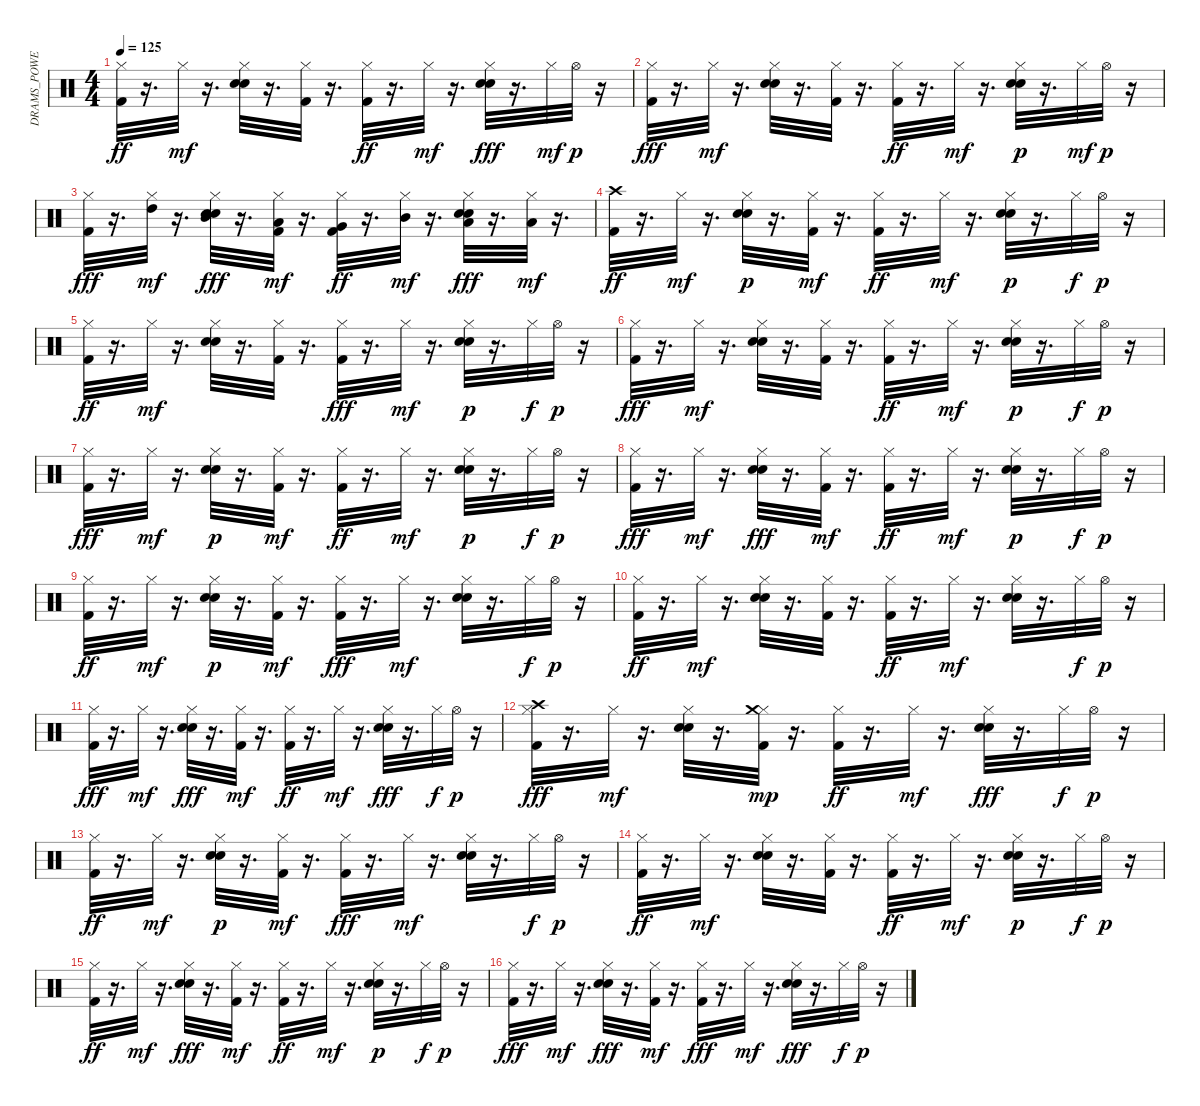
\track ("DRAMS_POWER" "DRAMS_POWE") {instrument percussion}
\staff {score}
\articulation defaults
\ts (4 4)
\tempo 125
\clef neutral
\ks c
("Hi-Hat (closed)" "Kick (hit) 2").32{dy ff} r.16{d} "Hi-Hat (closed)".32{dy mf} r.16{d} ("Snare (hit) 2" "Electric Snare (hit)" "Hi-Hat (closed)").32 r.16{d} ("Hi-Hat (closed)" "Kick (hit) 2").32 r.16{d} ("Hi-Hat (closed)" "Kick (hit) 2").32{dy ff} r.16{d} "Hi-Hat (closed)".32{dy mf} r.16{d} ("Hi-Hat (closed)" "Snare (hit) 2" "Electric Snare (hit)").32{dy fff} r.16{d} "Hi-Hat (closed)".32{dy mf} "Hi-Hat (open)".32{dy p} r.16 |
("Kick (hit) 2" "Hi-Hat (closed)").32{dy fff} r.16{d} "Hi-Hat (closed)".32{dy mf} r.16{d} ("Electric Snare (hit)" "Snare (hit) 2" "Hi-Hat (closed)").32 r.16{d} ("Hi-Hat (closed)" "Kick (hit) 2").32 r.16{d} ("Hi-Hat (closed)" "Kick (hit) 2").32{dy ff} r.16{d} "Hi-Hat (closed)".32{dy mf} r.16{d} ("Hi-Hat (closed)" "Electric Snare (hit)" "Snare (hit) 2").32{dy p} r.16{d} "Hi-Hat (closed)".32{dy mf} "Hi-Hat (open)".32{dy p} r.16 |
("Kick (hit) 2" "Hi-Hat (closed)").32{dy fff} r.16{d} ("Hi-Hat (closed)" "High Tom (hit)").32{dy mf} r.16{d} ("Snare (hit) 2" "Hi-Hat (closed)" "Mid Tom (hit)" "Electric Snare (hit)").32{dy fff} r.16{d} ("Low Tom (hit)" "Kick (hit) 2" "Hi-Hat (closed)").32{dy mf} r.16{d} ("Hi-Hat (closed)" "Very Low Tom (hit)" "Kick (hit) 2").32{dy ff} r.16{d} ("Mid Tom (hit)" "Hi-Hat (closed)").32{dy mf} r.16{d} ("Low Tom (hit)" "Snare (hit) 2" "Hi-Hat (closed)" "Electric Snare (hit)").32{dy fff} r.16{d} ("Hi-Hat (closed)" "Low Floor Tom (hit)").32{dy mf} r.16{d} |
("Kick (hit) 2" "Crash high (hit)").32{dy ff} r.16{d} "Hi-Hat (closed)".32{dy mf} r.16{d} ("Electric Snare (hit)" "Hi-Hat (closed)" "Snare (hit) 2").32{dy p} r.16{d} ("Hi-Hat (closed)" "Kick (hit) 2").32{dy mf} r.16{d} ("Hi-Hat (closed)" "Kick (hit) 2").32{dy ff} r.16{d} "Hi-Hat (closed)".32{dy mf} r.16{d} ("Electric Snare (hit)" "Hi-Hat (closed)" "Snare (hit) 2").32{dy p} r.16{d} "Hi-Hat (closed)".32{dy f} "Hi-Hat (open)".32{dy p} r.16 |
("Hi-Hat (closed)" "Kick (hit) 2").32{dy ff} r.16{d} "Hi-Hat (closed)".32{dy mf} r.16{d} ("Snare (hit) 2" "Electric Snare (hit)" "Hi-Hat (closed)").32 r.16{d} ("Hi-Hat (closed)" "Kick (hit) 2").32 r.16{d} ("Kick (hit) 2" "Hi-Hat (closed)").32{dy fff} r.16{d} "Hi-Hat (closed)".32{dy mf} r.16{d} ("Electric Snare (hit)" "Hi-Hat (closed)" "Snare (hit) 2").32{dy p} r.16{d} "Hi-Hat (closed)".32{dy f} "Hi-Hat (open)".32{dy p} r.16 |
("Kick (hit) 2" "Hi-Hat (closed)").32{dy fff} r.16{d} "Hi-Hat (closed)".32{dy mf} r.16{d} ("Snare (hit) 2" "Electric Snare (hit)" "Hi-Hat (closed)").32 r.16{d} ("Hi-Hat (closed)" "Kick (hit) 2").32 r.16{d} ("Hi-Hat (closed)" "Kick (hit) 2").32{dy ff} r.16{d} "Hi-Hat (closed)".32{dy mf} r.16{d} ("Hi-Hat (closed)" "Electric Snare (hit)" "Snare (hit) 2").32{dy p} r.16{d} "Hi-Hat (closed)".32{dy f} "Hi-Hat (open)".32{dy p} r.16 |
("Kick (hit) 2" "Hi-Hat (closed)").32{dy fff} r.16{d} "Hi-Hat (closed)".32{dy mf} r.16{d} ("Electric Snare (hit)" "Hi-Hat (closed)" "Snare (hit) 2").32{dy p} r.16{d} ("Kick (hit) 2" "Hi-Hat (closed)").32{dy mf} r.16{d} ("Hi-Hat (closed)" "Kick (hit) 2").32{dy ff} r.16{d} "Hi-Hat (closed)".32{dy mf} r.16{d} ("Hi-Hat (closed)" "Electric Snare (hit)" "Snare (hit) 2").32{dy p} r.16{d} "Hi-Hat (closed)".32{dy f} "Hi-Hat (open)".32{dy p} r.16 |
("Kick (hit) 2" "Hi-Hat (closed)").32{dy fff} r.16{d} "Hi-Hat (closed)".32{dy mf} r.16{d} ("Snare (hit) 2" "Hi-Hat (closed)" "Electric Snare (hit)").32{dy fff} r.16{d} ("Kick (hit) 2" "Hi-Hat (closed)").32{dy mf} r.16{d} ("Hi-Hat (closed)" "Kick (hit) 2").32{dy ff} r.16{d} "Hi-Hat (closed)".32{dy mf} r.16{d} ("Hi-Hat (closed)" "Electric Snare (hit)" "Snare (hit) 2").32{dy p} r.16{d} "Hi-Hat (closed)".32{dy f} "Hi-Hat (open)".32{dy p} r.16 |
("Hi-Hat (closed)" "Kick (hit) 2").32{dy ff} r.16{d} "Hi-Hat (closed)".32{dy mf} r.16{d} ("Electric Snare (hit)" "Hi-Hat (closed)" "Snare (hit) 2").32{dy p} r.16{d} ("Kick (hit) 2" "Hi-Hat (closed)").32{dy mf} r.16{d} ("Kick (hit) 2" "Hi-Hat (closed)").32{dy fff} r.16{d} "Hi-Hat (closed)".32{dy mf} r.16{d} ("Snare (hit) 2" "Electric Snare (hit)" "Hi-Hat (closed)").32 r.16{d} "Hi-Hat (closed)".32{dy f} "Hi-Hat (open)".32{dy p} r.16 |
("Hi-Hat (closed)" "Kick (hit) 2").32{dy ff} r.16{d} "Hi-Hat (closed)".32{dy mf} r.16{d} ("Snare (hit) 2" "Electric Snare (hit)" "Hi-Hat (closed)").32 r.16{d} ("Hi-Hat (closed)" "Kick (hit) 2").32 r.16{d} ("Hi-Hat (closed)" "Kick (hit) 2").32{dy ff} r.16{d} "Hi-Hat (closed)".32{dy mf} r.16{d} ("Electric Snare (hit)" "Snare (hit) 2" "Hi-Hat (closed)").32 r.16{d} "Hi-Hat (closed)".32{dy f} "Hi-Hat (open)".32{dy p} r.16 |
("Kick (hit) 2" "Hi-Hat (closed)").32{dy fff} r.16{d} "Hi-Hat (closed)".32{dy mf} r.16{d} ("Snare (hit) 2" "Hi-Hat (closed)" "Electric Snare (hit)").32{dy fff} r.16{d} ("Kick (hit) 2" "Hi-Hat (closed)").32{dy mf} r.16{d} ("Hi-Hat (closed)" "Kick (hit) 2").32{dy ff} r.16{d} "Hi-Hat (closed)".32{dy mf} r.16{d} ("Snare (hit) 2" "Hi-Hat (closed)" "Electric Snare (hit)").32{dy fff} r.16{d} "Hi-Hat (closed)".32{dy f} "Hi-Hat (open)".32{dy p} r.16 |
("Crash high (hit)" "Kick (hit) 2" "Hi-Hat (closed)").32{dy fff} r.16{d} "Hi-Hat (closed)".32{dy mf} r.16{d} ("Snare (hit) 2" "Electric Snare (hit)" "Hi-Hat (closed)").32 r.16{d} ("Hi-Hat (closed)" "Kick (hit) 2" "Crash medium (hit)").32{dy mp} r.16{d} ("Hi-Hat (closed)" "Kick (hit) 2").32{dy ff} r.16{d} "Hi-Hat (closed)".32{dy mf} r.16{d} ("Hi-Hat (closed)" "Snare (hit) 2" "Electric Snare (hit)").32{dy fff} r.16{d} "Hi-Hat (closed)".32{dy f} "Hi-Hat (open)".32{dy p} r.16 |
("Hi-Hat (closed)" "Kick (hit) 2").32{dy ff} r.16{d} "Hi-Hat (closed)".32{dy mf} r.16{d} ("Electric Snare (hit)" "Hi-Hat (closed)" "Snare (hit) 2").32{dy p} r.16{d} ("Kick (hit) 2" "Hi-Hat (closed)").32{dy mf} r.16{d} ("Kick (hit) 2" "Hi-Hat (closed)").32{dy fff} r.16{d} "Hi-Hat (closed)".32{dy mf} r.16{d} ("Snare (hit) 2" "Electric Snare (hit)" "Hi-Hat (closed)").32 r.16{d} "Hi-Hat (closed)".32{dy f} "Hi-Hat (open)".32{dy p} r.16 |
("Hi-Hat (closed)" "Kick (hit) 2").32{dy ff} r.16{d} "Hi-Hat (closed)".32{dy mf} r.16{d} ("Snare (hit) 2" "Electric Snare (hit)" "Hi-Hat (closed)").32 r.16{d} ("Hi-Hat (closed)" "Kick (hit) 2").32 r.16{d} ("Hi-Hat (closed)" "Kick (hit) 2").32{dy ff} r.16{d} "Hi-Hat (closed)".32{dy mf} r.16{d} ("Hi-Hat (closed)" "Electric Snare (hit)" "Snare (hit) 2").32{dy p} r.16{d} "Hi-Hat (closed)".32{dy f} "Hi-Hat (open)".32{dy p} r.16 |
("Hi-Hat (closed)" "Kick (hit) 2").32{dy ff} r.16{d} "Hi-Hat (closed)".32{dy mf} r.16{d} ("Snare (hit) 2" "Hi-Hat (closed)" "Electric Snare (hit)").32{dy fff} r.16{d} ("Hi-Hat (closed)" "Kick (hit) 2").32{dy mf} r.16{d} ("Hi-Hat (closed)" "Kick (hit) 2").32{dy ff} r.16{d} "Hi-Hat (closed)".32{dy mf} r.16{d} ("Electric Snare (hit)" "Hi-Hat (closed)" "Snare (hit) 2").32{dy p} r.16{d} "Hi-Hat (closed)".32{dy f} "Hi-Hat (open)".32{dy p} r.16 |
("Kick (hit) 2" "Hi-Hat (closed)").32{dy fff} r.16{d} "Hi-Hat (closed)".32{dy mf} r.16{d} ("Hi-Hat (closed)" "Snare (hit) 2" "Electric Snare (hit)").32{dy fff} r.16{d} ("Hi-Hat (closed)" "Kick (hit) 2").32{dy mf} r.16{d} ("Kick (hit) 2" "Hi-Hat (closed)").32{dy fff} r.16{d} "Hi-Hat (closed)".32{dy mf} r.16{d} ("Snare (hit) 2" "Hi-Hat (closed)" "Electric Snare (hit)").32{dy fff} r.16{d} "Hi-Hat (closed)".32{dy f} "Hi-Hat (open)".32{dy p} r.16
